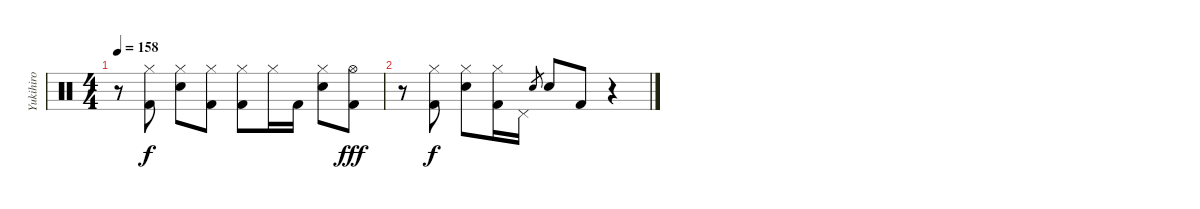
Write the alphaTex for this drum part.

\track ("Yukihiro" "Yukihiro") {instrument percussion}
\staff {score}
\articulation defaults
\ts (4 4)
\tempo 158
\clef neutral
\ks c
r.8{dy fff} ("Hi-Hat (closed)" "Kick (hit) 2").8{dy f} ("Hi-Hat (closed)" "Snare (hit) 2").8 ("Hi-Hat (closed)" "Kick (hit) 2").8 ("Hi-Hat (closed)" "Kick (hit) 2").8 "Hi-Hat (closed)".16 "Kick (hit) 2".16 ("Hi-Hat (closed)" "Snare (hit) 2").8 ("Hi-Hat (open)" "Kick (hit) 2").8{dy fff} |
r.8 ("Hi-Hat (closed)" "Kick (hit) 2").8{dy f} ("Hi-Hat (closed)" "Snare (hit) 2").8 ("Hi-Hat (closed)" "Kick (hit) 2").16 "Pedal Hi-Hat (hit)".16 "Snare (hit) 2".8{gr} "Snare (hit) 2".8 "Kick (hit) 2".8 r.4
